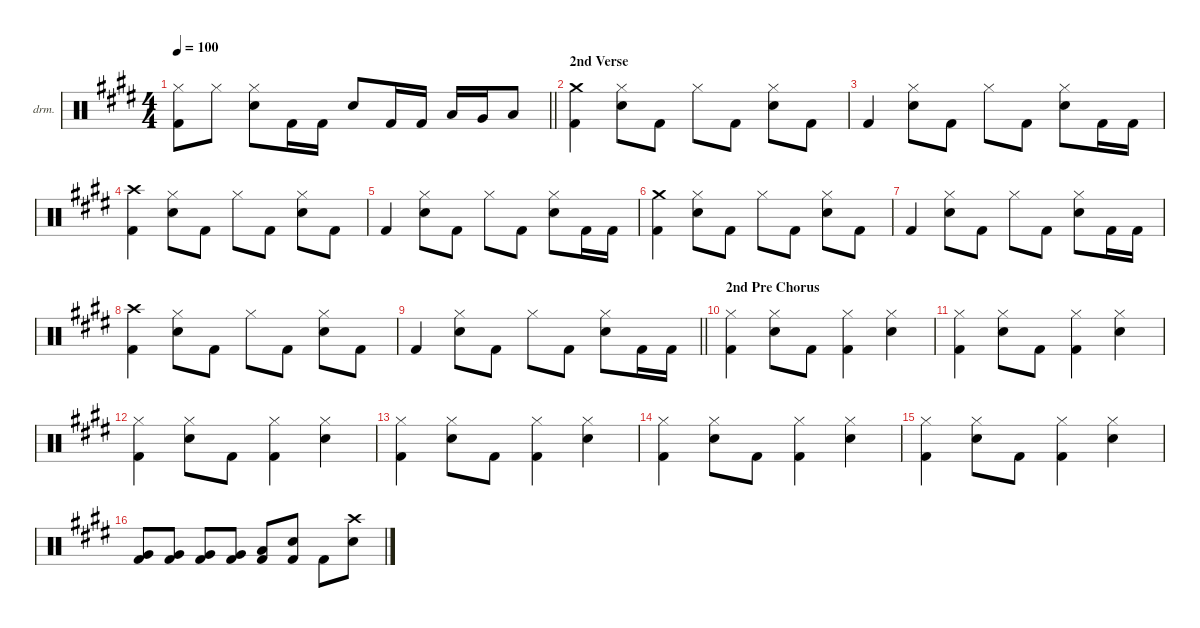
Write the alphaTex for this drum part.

\defaultSystemsLayout 4
\hideDynamics
\bracketExtendMode nobrackets
\firstSystemTrackNameOrientation horizontal
\otherSystemsTrackNameOrientation horizontal
\track ("Percussion" "drm.") {instrument percussion}
\staff {score}
\articulation defaults
\ts (4 4)
\tempo 100
\clef neutral
\barLineRight lightlight
\ks c#minor
("Hi-Hat (closed)"{acc forcenatural} "Kick (hit) 2"{acc forcenatural}).8{dy f} "Hi-Hat (closed)"{acc forcenatural}.8 ("Hi-Hat (closed)"{acc forcenatural} "Snare (hit) 2"{acc forcenatural}).8 "Kick (hit) 2"{acc forcenatural}.16 "Kick (hit) 2"{acc forcenatural}.16 "Snare (hit) 2"{acc forcenatural}.8 "Kick (hit) 2"{acc forcenatural}.16 "Kick (hit) 2"{acc forcenatural}.16 "Low Tom (hit)"{acc forcenatural}.16 "Very Low Tom (hit)"{acc forcenatural}.16 "Low Floor Tom (hit)"{acc forcenatural}.8 |
\section ("" "2nd Verse")
("Crash medium (hit)"{acc forcenatural} "Kick (hit) 2"{acc forcenatural}).4 ("Hi-Hat (closed)"{acc forcenatural} "Snare (hit) 2"{acc forcenatural}).8 "Kick (hit) 2"{acc forcenatural}.8 "Hi-Hat (closed)"{acc forcenatural}.8 "Kick (hit) 2"{acc forcenatural}.8 ("Hi-Hat (closed)"{acc forcenatural} "Snare (hit) 2"{acc forcenatural}).8 "Kick (hit) 2"{acc forcenatural}.8 |
"Kick (hit) 2"{acc forcenatural}.4 ("Hi-Hat (closed)"{acc forcenatural} "Snare (hit) 2"{acc forcenatural}).8 "Kick (hit) 2"{acc forcenatural}.8 "Hi-Hat (closed)"{acc forcenatural}.8 "Kick (hit) 2"{acc forcenatural}.8 ("Hi-Hat (closed)"{acc forcenatural} "Snare (hit) 2"{acc forcenatural}).8 "Kick (hit) 2"{acc forcenatural}.16 "Kick (hit) 2"{acc forcenatural}.16 |
("Crash high (hit)"{acc forcenatural} "Kick (hit) 2"{acc forcenatural}).4 ("Hi-Hat (closed)"{acc forcenatural} "Snare (hit) 2"{acc forcenatural}).8 "Kick (hit) 2"{acc forcenatural}.8 "Hi-Hat (closed)"{acc forcenatural}.8 "Kick (hit) 2"{acc forcenatural}.8 ("Hi-Hat (closed)"{acc forcenatural} "Snare (hit) 2"{acc forcenatural}).8 "Kick (hit) 2"{acc forcenatural}.8 |
"Kick (hit) 2"{acc forcenatural}.4 ("Hi-Hat (closed)"{acc forcenatural} "Snare (hit) 2"{acc forcenatural}).8 "Kick (hit) 2"{acc forcenatural}.8 "Hi-Hat (closed)"{acc forcenatural}.8 "Kick (hit) 2"{acc forcenatural}.8 ("Hi-Hat (closed)"{acc forcenatural} "Snare (hit) 2"{acc forcenatural}).8 "Kick (hit) 2"{acc forcenatural}.16 "Kick (hit) 2"{acc forcenatural}.16 |
("Crash medium (hit)"{acc forcenatural} "Kick (hit) 2"{acc forcenatural}).4 ("Hi-Hat (closed)"{acc forcenatural} "Snare (hit) 2"{acc forcenatural}).8 "Kick (hit) 2"{acc forcenatural}.8 "Hi-Hat (closed)"{acc forcenatural}.8 "Kick (hit) 2"{acc forcenatural}.8 ("Hi-Hat (closed)"{acc forcenatural} "Snare (hit) 2"{acc forcenatural}).8 "Kick (hit) 2"{acc forcenatural}.8 |
"Kick (hit) 2"{acc forcenatural}.4 ("Hi-Hat (closed)"{acc forcenatural} "Snare (hit) 2"{acc forcenatural}).8 "Kick (hit) 2"{acc forcenatural}.8 "Hi-Hat (closed)"{acc forcenatural}.8 "Kick (hit) 2"{acc forcenatural}.8 ("Hi-Hat (closed)"{acc forcenatural} "Snare (hit) 2"{acc forcenatural}).8 "Kick (hit) 2"{acc forcenatural}.16 "Kick (hit) 2"{acc forcenatural}.16 |
("Crash high (hit)"{acc forcenatural} "Kick (hit) 2"{acc forcenatural}).4 ("Hi-Hat (closed)"{acc forcenatural} "Snare (hit) 2"{acc forcenatural}).8 "Kick (hit) 2"{acc forcenatural}.8 "Hi-Hat (closed)"{acc forcenatural}.8 "Kick (hit) 2"{acc forcenatural}.8 ("Hi-Hat (closed)"{acc forcenatural} "Snare (hit) 2"{acc forcenatural}).8 "Kick (hit) 2"{acc forcenatural}.8 |
\barLineRight lightlight "Kick (hit) 2"{acc forcenatural}.4
("Hi-Hat (closed)"{acc forcenatural} "Snare (hit) 2"{acc forcenatural}).8 "Kick (hit) 2"{acc forcenatural}.8 "Hi-Hat (closed)"{acc forcenatural}.8 "Kick (hit) 2"{acc forcenatural}.8 ("Hi-Hat (closed)"{acc forcenatural} "Snare (hit) 2"{acc forcenatural}).8 "Kick (hit) 2"{acc forcenatural}.16 "Kick (hit) 2"{acc forcenatural}.16 |
\section ("" "2nd Pre Chorus")
("Hi-Hat (closed)"{acc forcenatural} "Kick (hit) 2"{acc forcenatural}).4 ("Hi-Hat (closed)"{acc forcenatural} "Snare (hit) 2"{acc forcenatural}).8 "Kick (hit) 2"{acc forcenatural}.8 ("Hi-Hat (closed)"{acc forcenatural} "Kick (hit) 2"{acc forcenatural}).4 ("Hi-Hat (closed)"{acc forcenatural} "Snare (hit) 2"{acc forcenatural}).4 |
("Hi-Hat (closed)"{acc forcenatural} "Kick (hit) 2"{acc forcenatural}).4 ("Hi-Hat (closed)"{acc forcenatural} "Snare (hit) 2"{acc forcenatural}).8 "Kick (hit) 2"{acc forcenatural}.8 ("Hi-Hat (closed)"{acc forcenatural} "Kick (hit) 2"{acc forcenatural}).4 ("Hi-Hat (closed)"{acc forcenatural} "Snare (hit) 2"{acc forcenatural}).4 |
("Hi-Hat (closed)"{acc forcenatural} "Kick (hit) 2"{acc forcenatural}).4 ("Hi-Hat (closed)"{acc forcenatural} "Snare (hit) 2"{acc forcenatural}).8 "Kick (hit) 2"{acc forcenatural}.8 ("Hi-Hat (closed)"{acc forcenatural} "Kick (hit) 2"{acc forcenatural}).4 ("Hi-Hat (closed)"{acc forcenatural} "Snare (hit) 2"{acc forcenatural}).4 |
("Hi-Hat (closed)"{acc forcenatural} "Kick (hit) 2"{acc forcenatural}).4 ("Hi-Hat (closed)"{acc forcenatural} "Snare (hit) 2"{acc forcenatural}).8 "Kick (hit) 2"{acc forcenatural}.8 ("Hi-Hat (closed)"{acc forcenatural} "Kick (hit) 2"{acc forcenatural}).4 ("Hi-Hat (closed)"{acc forcenatural} "Snare (hit) 2"{acc forcenatural}).4 |
("Hi-Hat (closed)"{acc forcenatural} "Kick (hit) 2"{acc forcenatural}).4 ("Hi-Hat (closed)"{acc forcenatural} "Snare (hit) 2"{acc forcenatural}).8 "Kick (hit) 2"{acc forcenatural}.8 ("Hi-Hat (closed)"{acc forcenatural} "Kick (hit) 2"{acc forcenatural}).4 ("Hi-Hat (closed)"{acc forcenatural} "Snare (hit) 2"{acc forcenatural}).4 |
("Hi-Hat (closed)"{acc forcenatural} "Kick (hit) 2"{acc forcenatural}).4 ("Hi-Hat (closed)"{acc forcenatural} "Snare (hit) 2"{acc forcenatural}).8 "Kick (hit) 2"{acc forcenatural}.8 ("Hi-Hat (closed)"{acc forcenatural} "Kick (hit) 2"{acc forcenatural}).4 ("Hi-Hat (closed)"{acc forcenatural} "Snare (hit) 2"{acc forcenatural}).4 |
("Very Low Tom (hit)"{acc forcenatural} "Kick (hit) 2"{acc forcenatural}).8 ("Very Low Tom (hit)"{acc forcenatural} "Kick (hit) 2"{acc forcenatural}).8 ("Very Low Tom (hit)"{acc forcenatural} "Kick (hit) 2"{acc forcenatural}).8 ("Very Low Tom (hit)"{acc forcenatural} "Kick (hit) 2"{acc forcenatural}).8 ("Low Floor Tom (hit)"{acc forcenatural} "Kick (hit) 2"{acc forcenatural}).8 ("Snare (hit) 2"{acc forcenatural} "Kick (hit) 2"{acc forcenatural}).8 "Kick (hit) 2"{acc forcenatural}.8 ("Crash high (hit)"{acc forcenatural} "Snare (hit) 2"{acc forcenatural}).8
